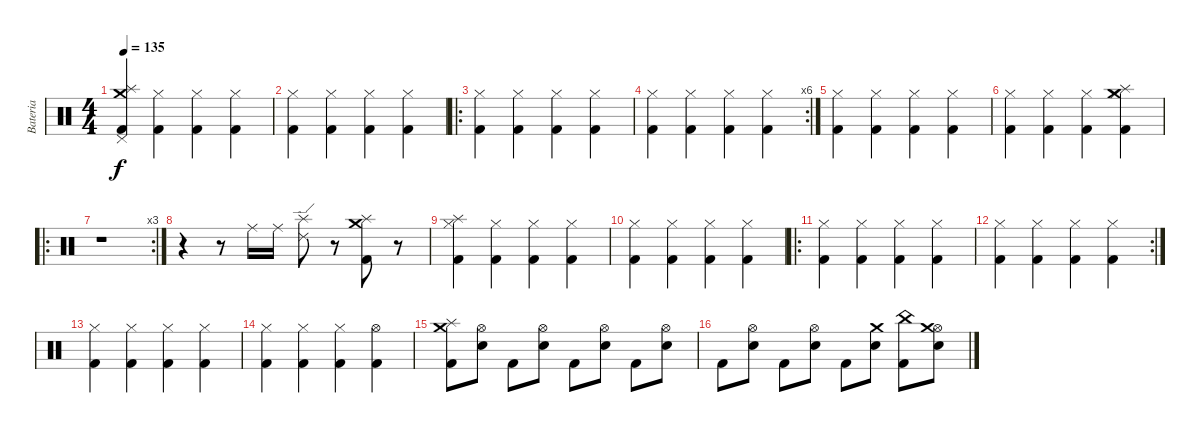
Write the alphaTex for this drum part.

\track ("Bateria" "Bateria") {instrument percussion}
\staff {score}
\articulation defaults
\ts (4 4)
\tempo 135
\clef neutral
\ks c
("Pedal Hi-Hat (hit)" "Splash (hit)" "Crash medium (hit)" "Kick (hit) 2").4{dy f} ("Hi-Hat (closed)" "Kick (hit) 2").4 ("Hi-Hat (closed)" "Kick (hit) 2").4 ("Hi-Hat (closed)" "Kick (hit) 2").4 |
("Hi-Hat (closed)" "Kick (hit) 2").4 ("Hi-Hat (closed)" "Kick (hit) 2").4 ("Hi-Hat (closed)" "Kick (hit) 2").4 ("Hi-Hat (closed)" "Kick (hit) 2").4 |
\ro
("Hi-Hat (closed)" "Kick (hit) 2").4 ("Hi-Hat (closed)" "Kick (hit) 2").4 ("Hi-Hat (closed)" "Kick (hit) 2").4 ("Hi-Hat (closed)" "Kick (hit) 2").4 |
\rc 6
("Hi-Hat (closed)" "Kick (hit) 2").4 ("Hi-Hat (closed)" "Kick (hit) 2").4 ("Hi-Hat (closed)" "Kick (hit) 2").4 ("Hi-Hat (closed)" "Kick (hit) 2").4 |
("Hi-Hat (closed)" "Kick (hit) 2").4 ("Hi-Hat (closed)" "Kick (hit) 2").4 ("Hi-Hat (closed)" "Kick (hit) 2").4 ("Hi-Hat (closed)" "Kick (hit) 2").4 |
("Hi-Hat (closed)" "Kick (hit) 2").4 ("Hi-Hat (closed)" "Kick (hit) 2").4 ("Hi-Hat (closed)" "Kick (hit) 2").4 ("Hi-Hat (closed)" "Splash (hit)" "Crash medium (hit)" "Kick (hit) 2").4 |
\ro
\rc 3
r.1 |
r.4 r.8 "Ride (middle)".16 "Ride (middle)".16 ("Ride (edge) 2" "Splash (hit)").8 r.8 ("Splash (hit)" "Crash medium (hit)" "Kick (hit) 2").8 r.8 |
("Hi-Hat (closed)" "Splash (hit)" "Kick (hit) 2").4 ("Hi-Hat (closed)" "Kick (hit) 2").4 ("Hi-Hat (closed)" "Kick (hit) 2").4 ("Hi-Hat (closed)" "Kick (hit) 2").4 |
("Hi-Hat (closed)" "Kick (hit) 2").4 ("Hi-Hat (closed)" "Kick (hit) 2").4 ("Hi-Hat (closed)" "Kick (hit) 2").4 ("Hi-Hat (closed)" "Kick (hit) 2").4 |
\ro
("Hi-Hat (closed)" "Kick (hit) 2").4 ("Hi-Hat (closed)" "Kick (hit) 2").4 ("Hi-Hat (closed)" "Kick (hit) 2").4 ("Hi-Hat (closed)" "Kick (hit) 2").4 |
\rc 2
("Hi-Hat (closed)" "Kick (hit) 2").4 ("Hi-Hat (closed)" "Kick (hit) 2").4 ("Hi-Hat (closed)" "Kick (hit) 2").4 ("Hi-Hat (closed)" "Kick (hit) 2").4 |
("Hi-Hat (closed)" "Kick (hit) 2").4 ("Hi-Hat (closed)" "Kick (hit) 2").4 ("Hi-Hat (closed)" "Kick (hit) 2").4 ("Hi-Hat (closed)" "Kick (hit) 2").4 |
("Hi-Hat (closed)" "Kick (hit) 2").4 ("Hi-Hat (closed)" "Kick (hit) 2").4 ("Hi-Hat (closed)" "Kick (hit) 2").4 ("Hi-Hat (open)" "Kick (hit) 2").4 |
("Crash medium (hit)" "Splash (hit)" "Kick (hit) 2").8 ("Hi-Hat (open)" "Snare (hit) 2").8 "Kick (hit) 2".8 ("Hi-Hat (open)" "Snare (hit) 2").8 "Kick (hit) 2".8 ("Hi-Hat (open)" "Snare (hit) 2").8 "Kick (hit) 2".8 ("Hi-Hat (open)" "Snare (hit) 2").8 |
"Kick (hit) 2".8 ("Hi-Hat (open)" "Snare (hit) 2").8 "Kick (hit) 2".8 ("Hi-Hat (open)" "Snare (hit) 2").8 "Kick (hit) 2".8 ("Crash medium (hit)" "Snare (hit) 2").8 ("China (hit)" "Kick (hit) 2").8 ("Hi-Hat (open)" "Crash medium (hit)" "Snare (hit) 2").8
